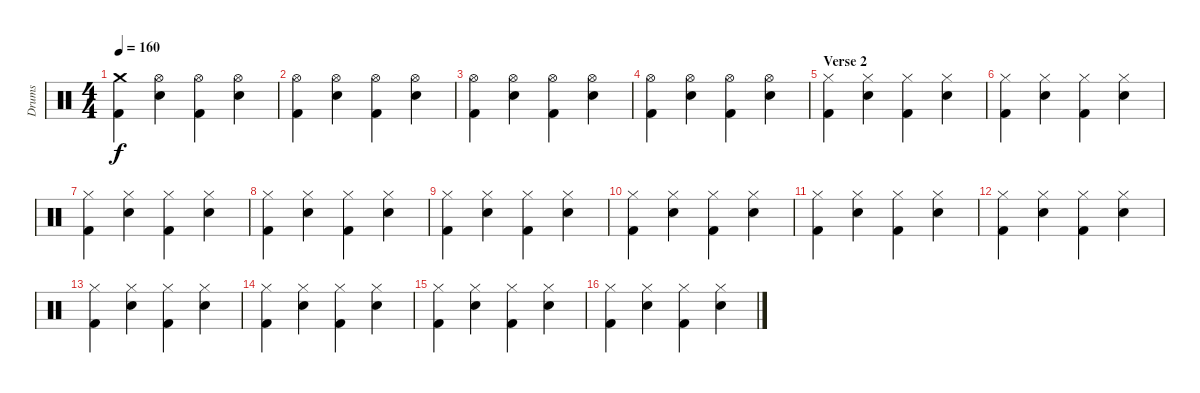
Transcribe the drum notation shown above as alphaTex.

\track ("Drums" "Drums") {instrument percussion}
\staff {score}
\articulation defaults
\ts (4 4)
\tempo 160
\clef neutral
\ks c
("Crash medium (hit)" "Kick (hit) 2").4{dy f} ("Hi-Hat (open)" "Electric Snare (hit)").4 ("Hi-Hat (open)" "Kick (hit) 2").4 ("Hi-Hat (open)" "Electric Snare (hit)").4 |
("Hi-Hat (open)" "Kick (hit) 2").4 ("Hi-Hat (open)" "Electric Snare (hit)").4 ("Hi-Hat (open)" "Kick (hit) 2").4 ("Hi-Hat (open)" "Electric Snare (hit)").4 |
("Kick (hit) 2" "Hi-Hat (open)").4 ("Electric Snare (hit)" "Hi-Hat (open)").4 ("Kick (hit) 2" "Hi-Hat (open)").4 ("Electric Snare (hit)" "Hi-Hat (open)").4 |
("Kick (hit) 2" "Hi-Hat (open)").4 ("Electric Snare (hit)" "Hi-Hat (open)").4 ("Kick (hit) 2" "Hi-Hat (open)").4 ("Electric Snare (hit)" "Hi-Hat (open)").4 |
\section ("" "Verse 2")
("Kick (hit) 2" "Hi-Hat (closed)").4 ("Electric Snare (hit)" "Hi-Hat (closed)").4 ("Kick (hit) 2" "Hi-Hat (closed)").4 ("Electric Snare (hit)" "Hi-Hat (closed)").4 |
("Kick (hit) 2" "Hi-Hat (closed)").4 ("Electric Snare (hit)" "Hi-Hat (closed)").4 ("Kick (hit) 2" "Hi-Hat (closed)").4 ("Electric Snare (hit)" "Hi-Hat (closed)").4 |
("Kick (hit) 2" "Hi-Hat (closed)").4 ("Electric Snare (hit)" "Hi-Hat (closed)").4 ("Kick (hit) 2" "Hi-Hat (closed)").4 ("Electric Snare (hit)" "Hi-Hat (closed)").4 |
("Kick (hit) 2" "Hi-Hat (closed)").4 ("Electric Snare (hit)" "Hi-Hat (closed)").4 ("Kick (hit) 2" "Hi-Hat (closed)").4 ("Electric Snare (hit)" "Hi-Hat (closed)").4 |
("Kick (hit) 2" "Hi-Hat (closed)").4 ("Electric Snare (hit)" "Hi-Hat (closed)").4 ("Kick (hit) 2" "Hi-Hat (closed)").4 ("Electric Snare (hit)" "Hi-Hat (closed)").4 |
("Kick (hit) 2" "Hi-Hat (closed)").4 ("Electric Snare (hit)" "Hi-Hat (closed)").4 ("Kick (hit) 2" "Hi-Hat (closed)").4 ("Electric Snare (hit)" "Hi-Hat (closed)").4 |
("Kick (hit) 2" "Hi-Hat (closed)").4 ("Electric Snare (hit)" "Hi-Hat (closed)").4 ("Kick (hit) 2" "Hi-Hat (closed)").4 ("Electric Snare (hit)" "Hi-Hat (closed)").4 |
("Kick (hit) 2" "Hi-Hat (closed)").4 ("Electric Snare (hit)" "Hi-Hat (closed)").4 ("Kick (hit) 2" "Hi-Hat (closed)").4 ("Electric Snare (hit)" "Hi-Hat (closed)").4 |
("Kick (hit) 2" "Hi-Hat (closed)").4 ("Electric Snare (hit)" "Hi-Hat (closed)").4 ("Kick (hit) 2" "Hi-Hat (closed)").4 ("Electric Snare (hit)" "Hi-Hat (closed)").4 |
("Kick (hit) 2" "Hi-Hat (closed)").4 ("Electric Snare (hit)" "Hi-Hat (closed)").4 ("Kick (hit) 2" "Hi-Hat (closed)").4 ("Electric Snare (hit)" "Hi-Hat (closed)").4 |
("Kick (hit) 2" "Hi-Hat (closed)").4 ("Electric Snare (hit)" "Hi-Hat (closed)").4 ("Kick (hit) 2" "Hi-Hat (closed)").4 ("Electric Snare (hit)" "Hi-Hat (closed)").4 |
("Kick (hit) 2" "Hi-Hat (closed)").4 ("Electric Snare (hit)" "Hi-Hat (closed)").4 ("Kick (hit) 2" "Hi-Hat (closed)").4 ("Electric Snare (hit)" "Hi-Hat (closed)").4
